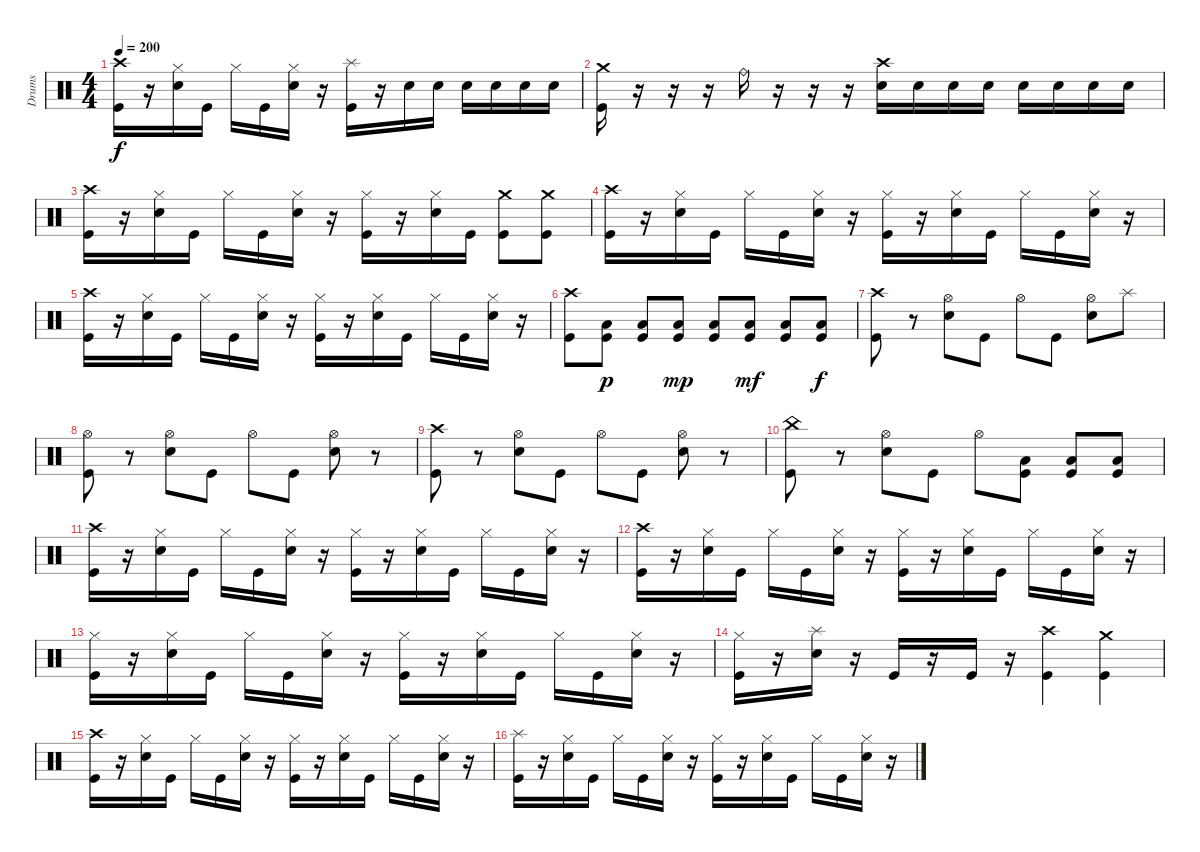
\track ("Drums" "Drums") {instrument percussion}
\staff {score}
\articulation defaults
\ts (4 4)
\tempo 200
\clef neutral
\ks c
("Crash high (hit)" "Kick (hit)").16{dy f} r.16 ("Hi-Hat (closed)" "Snare (hit) 2").16 "Kick (hit)".16 "Hi-Hat (closed)".16 "Kick (hit)".16 ("Hi-Hat (closed)" "Snare (hit) 2").16 r.16 ("Splash (hit)" "Kick (hit)").16 r.16 "Snare (hit) 2".16 "Snare (hit) 2".16 "Snare (hit) 2".16 "Snare (hit) 2".16 "Snare (hit) 2".16 "Snare (hit) 2".16 |
("Crash medium (hit)" "Kick (hit)").16 r.16 r.16 r.16 "Ride (bell)".16 r.16 r.16 r.16 ("Crash high (hit)" "Snare (hit) 2").16 "Snare (hit) 2".16 "Snare (hit) 2".16 "Snare (hit) 2".16 "Snare (hit) 2".16 "Snare (hit) 2".16 "Snare (hit) 2".16 "Snare (hit) 2".16 |
("Crash high (hit)" "Kick (hit)").16 r.16 ("Hi-Hat (closed)" "Snare (hit) 2").16 "Kick (hit)".16 "Hi-Hat (closed)".16 "Kick (hit)".16 ("Hi-Hat (closed)" "Snare (hit) 2").16 r.16 ("Hi-Hat (closed)" "Kick (hit)").16 r.16 ("Hi-Hat (closed)" "Snare (hit) 2").16 "Kick (hit)".16 ("Crash medium (hit)" "Kick (hit)").8 ("Crash medium (hit)" "Kick (hit)").8 |
("Crash high (hit)" "Kick (hit)").16 r.16 ("Hi-Hat (closed)" "Snare (hit) 2").16 "Kick (hit)".16 "Hi-Hat (closed)".16 "Kick (hit)".16 ("Hi-Hat (closed)" "Snare (hit) 2").16 r.16 ("Hi-Hat (closed)" "Kick (hit)").16 r.16 ("Hi-Hat (closed)" "Snare (hit) 2").16 "Kick (hit)".16 "Hi-Hat (closed)".16 "Kick (hit)".16 ("Hi-Hat (closed)" "Snare (hit) 2").16 r.16 |
("Crash high (hit)" "Kick (hit)").16 r.16 ("Hi-Hat (closed)" "Snare (hit) 2").16 "Kick (hit)".16 "Hi-Hat (closed)".16 "Kick (hit)".16 ("Hi-Hat (closed)" "Snare (hit) 2").16 r.16 ("Hi-Hat (closed)" "Kick (hit)").16 r.16 ("Hi-Hat (closed)" "Snare (hit) 2").16 "Kick (hit)".16 "Hi-Hat (closed)".16 "Kick (hit)".16 ("Hi-Hat (closed)" "Snare (hit) 2").16 r.16 |
("Crash high (hit)" "Kick (hit)").8 ("Low Tom (hit)" "Kick (hit)").8{dy p} ("Low Tom (hit)" "Kick (hit)").8 ("Low Tom (hit)" "Kick (hit)").8{dy mp} ("Low Tom (hit)" "Kick (hit)").8 ("Low Tom (hit)" "Kick (hit)").8{dy mf} ("Low Tom (hit)" "Kick (hit)").8 ("Low Tom (hit)" "Kick (hit)").8{dy f} |
("Crash high (hit)" "Kick (hit)").8 r.8 ("Hi-Hat (open)" "Snare (hit) 2").8 "Kick (hit)".8 "Hi-Hat (open)".8 "Kick (hit)".8 ("Hi-Hat (open)" "Snare (hit) 2").8 "Splash (hit)".8 |
("Hi-Hat (open)" "Kick (hit)").8 r.8 ("Hi-Hat (open)" "Snare (hit) 2").8 "Kick (hit)".8 "Hi-Hat (open)".8 "Kick (hit)".8 ("Hi-Hat (open)" "Snare (hit) 2").8 r.8 |
("Crash high (hit)" "Kick (hit)").8 r.8 ("Hi-Hat (open)" "Snare (hit) 2").8 "Kick (hit)".8 "Hi-Hat (open)".8 "Kick (hit)".8 ("Hi-Hat (open)" "Snare (hit) 2").8 r.8 |
("China (hit)" "Kick (hit)").8 r.8 ("Hi-Hat (open)" "Snare (hit) 2").8 "Kick (hit)".8 "Hi-Hat (open)".8 ("Kick (hit)" "Low Tom (hit)").8 ("Kick (hit)" "Low Tom (hit)").8 ("Low Tom (hit)" "Kick (hit)").8 |
("Crash high (hit)" "Kick (hit)").16 r.16 ("Hi-Hat (closed)" "Snare (hit) 2").16 "Kick (hit)".16 "Hi-Hat (closed)".16 "Kick (hit)".16 ("Hi-Hat (closed)" "Snare (hit) 2").16 r.16 ("Hi-Hat (closed)" "Kick (hit)").16 r.16 ("Hi-Hat (closed)" "Snare (hit) 2").16 "Kick (hit)".16 "Hi-Hat (closed)".16 "Kick (hit)".16 ("Hi-Hat (closed)" "Snare (hit) 2").16 r.16 |
("Crash high (hit)" "Kick (hit)").16 r.16 ("Hi-Hat (closed)" "Snare (hit) 2").16 "Kick (hit)".16 "Hi-Hat (closed)".16 "Kick (hit)".16 ("Hi-Hat (closed)" "Snare (hit) 2").16 r.16 ("Hi-Hat (closed)" "Kick (hit)").16 r.16 ("Hi-Hat (closed)" "Snare (hit) 2").16 "Kick (hit)".16 "Hi-Hat (closed)".16 "Kick (hit)".16 ("Hi-Hat (closed)" "Snare (hit) 2").16 r.16 |
("Hi-Hat (closed)" "Kick (hit)").16 r.16 ("Hi-Hat (closed)" "Snare (hit) 2").16 "Kick (hit)".16 "Hi-Hat (closed)".16 "Kick (hit)".16 ("Hi-Hat (closed)" "Snare (hit) 2").16 r.16 ("Hi-Hat (closed)" "Kick (hit)").16 r.16 ("Hi-Hat (closed)" "Snare (hit) 2").16 "Kick (hit)".16 "Hi-Hat (closed)".16 "Kick (hit)".16 ("Hi-Hat (closed)" "Snare (hit) 2").16 r.16 |
("Hi-Hat (closed)" "Kick (hit)").16 r.16 ("Splash (hit)" "Snare (hit) 2").16 r.16 "Kick (hit)".16 r.16 "Kick (hit)".16 r.16 ("Crash high (hit)" "Kick (hit)").4 ("Crash medium (hit)" "Kick (hit)").4 |
("Crash high (hit)" "Kick (hit)").16 r.16 ("Hi-Hat (closed)" "Snare (hit) 2").16 "Kick (hit)".16 "Hi-Hat (closed)".16 "Kick (hit)".16 ("Hi-Hat (closed)" "Snare (hit) 2").16 r.16 ("Hi-Hat (closed)" "Kick (hit)").16 r.16 ("Hi-Hat (closed)" "Snare (hit) 2").16 "Kick (hit)".16 "Hi-Hat (closed)".16 "Kick (hit)".16 ("Hi-Hat (closed)" "Snare (hit) 2").16 r.16 |
("Splash (hit)" "Kick (hit)").16 r.16 ("Hi-Hat (closed)" "Snare (hit) 2").16 "Kick (hit)".16 "Hi-Hat (closed)".16 "Kick (hit)".16 ("Hi-Hat (closed)" "Snare (hit) 2").16 r.16 ("Hi-Hat (closed)" "Kick (hit)").16 r.16 ("Hi-Hat (closed)" "Snare (hit) 2").16 "Kick (hit)".16 "Hi-Hat (closed)".16 "Kick (hit)".16 ("Hi-Hat (closed)" "Snare (hit) 2").16 r.16
